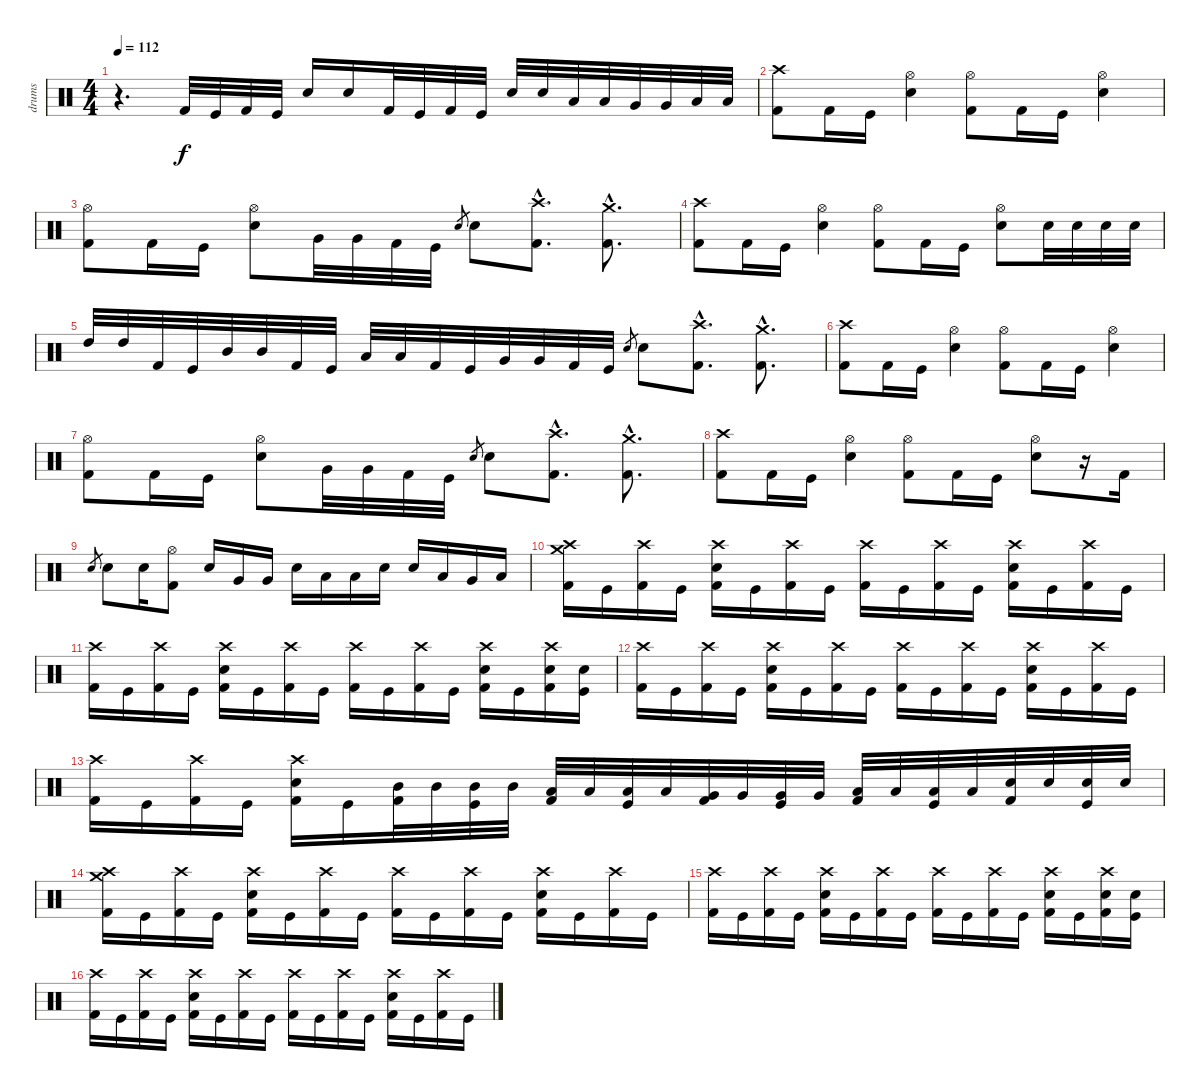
\track ("drums" "drums") {instrument percussion}
\staff {score}
\articulation defaults
\ts (4 4)
\tempo 112
\clef neutral
\ks c
r.4{d dy mp} "Kick (hit) 2".32{dy f} "Kick (hit)".32 "Kick (hit) 2".32 "Kick (hit)".32 "Electric Snare (hit)".16 "Electric Snare (hit)".16 "Kick (hit) 2".32 "Kick (hit)".32 "Kick (hit) 2".32 "Kick (hit)".32 "Electric Snare (hit)".32 "Electric Snare (hit)".32 "Low Tom (hit)".32 "Low Tom (hit)".32 "Very Low Tom (hit)".32 "Very Low Tom (hit)".32 "Low Floor Tom (hit)".32 "Low Floor Tom (hit)".32 |
("Crash high (hit)" "Kick (hit) 2").8 "Kick (hit) 2".16 "Kick (hit)".16 ("Hi-Hat (open)" "Electric Snare (hit)").4 ("Hi-Hat (open)" "Kick (hit) 2").8 "Kick (hit) 2".16 "Kick (hit)".16 ("Hi-Hat (open)" "Electric Snare (hit)").4 |
("Hi-Hat (open)" "Kick (hit) 2").8 "Kick (hit) 2".16 "Kick (hit)".16 ("Hi-Hat (open)" "Electric Snare (hit)").8 "Very Low Tom (hit)".32 "Very Low Tom (hit)".32 "Kick (hit) 2".32 "Kick (hit)".32 "Electric Snare (hit)".8{gr} "Electric Snare (hit)".8 ("Crash high (hit)"{hac} "Kick (hit) 2"{hac}).8{d} ("Crash medium (hit)"{hac} "Kick (hit) 2"{hac}).8{d} |
("Crash high (hit)" "Kick (hit) 2").8 "Kick (hit) 2".16 "Kick (hit)".16 ("Hi-Hat (open)" "Electric Snare (hit)").4 ("Hi-Hat (open)" "Kick (hit) 2").8 "Kick (hit) 2".16 "Kick (hit)".16 ("Hi-Hat (open)" "Electric Snare (hit)").8 "Electric Snare (hit)".32 "Electric Snare (hit)".32 "Electric Snare (hit)".32 "Electric Snare (hit)".32 |
"High Tom (hit)".32 "High Tom (hit)".32 "Kick (hit) 2".32 "Kick (hit)".32 "Mid Tom (hit)".32 "Mid Tom (hit)".32 "Kick (hit) 2".32 "Kick (hit)".32 "Low Tom (hit)".32 "Low Tom (hit)".32 "Kick (hit) 2".32 "Kick (hit)".32 "Very Low Tom (hit)".32 "Very Low Tom (hit)".32 "Kick (hit) 2".32 "Kick (hit)".32 "Electric Snare (hit)".8{gr} "Electric Snare (hit)".8 ("Crash high (hit)"{hac} "Kick (hit) 2"{hac}).8{d} ("Crash medium (hit)"{hac} "Kick (hit) 2"{hac}).8{d} |
("Crash high (hit)" "Kick (hit) 2").8 "Kick (hit) 2".16 "Kick (hit)".16 ("Hi-Hat (open)" "Electric Snare (hit)").4 ("Hi-Hat (open)" "Kick (hit) 2").8 "Kick (hit) 2".16 "Kick (hit)".16 ("Hi-Hat (open)" "Electric Snare (hit)").4 |
("Hi-Hat (open)" "Kick (hit) 2").8 "Kick (hit) 2".16 "Kick (hit)".16 ("Hi-Hat (open)" "Electric Snare (hit)").8 "Very Low Tom (hit)".32 "Very Low Tom (hit)".32 "Kick (hit) 2".32 "Kick (hit)".32 "Electric Snare (hit)".8{gr} "Electric Snare (hit)".8 ("Crash high (hit)"{hac} "Kick (hit) 2"{hac}).8{d} ("Crash medium (hit)"{hac} "Kick (hit) 2"{hac}).8{d} |
("Crash high (hit)" "Kick (hit) 2").8 "Kick (hit) 2".16 "Kick (hit)".16 ("Hi-Hat (open)" "Electric Snare (hit)").4 ("Hi-Hat (open)" "Kick (hit) 2").8 "Kick (hit) 2".16 "Kick (hit)".16 ("Hi-Hat (open)" "Electric Snare (hit)").8 r.16 "Kick (hit) 2".16 |
"Electric Snare (hit)".8{gr} "Electric Snare (hit)".8 "Electric Snare (hit)".16 ("Hi-Hat (open)" "Kick (hit) 2").8 "Electric Snare (hit)".16 "Very Low Tom (hit)".16 "Very Low Tom (hit)".16 "Electric Snare (hit)".16 "Low Tom (hit)".16 "Low Tom (hit)".16 "Electric Snare (hit)".16 "Electric Snare (hit)".16 "Low Tom (hit)".16 "Very Low Tom (hit)".16 "Low Floor Tom (hit)".16 |
("Crash high (hit)" "Crash medium (hit)" "Kick (hit) 2").16 "Kick (hit)".16 ("Crash high (hit)" "Kick (hit) 2").16 "Kick (hit)".16 ("Crash high (hit)" "Electric Snare (hit)" "Kick (hit) 2").16 "Kick (hit)".16 ("Crash high (hit)" "Kick (hit) 2").16 "Kick (hit)".16 ("Crash high (hit)" "Kick (hit) 2").16 "Kick (hit)".16 ("Crash high (hit)" "Kick (hit) 2").16 "Kick (hit)".16 ("Crash high (hit)" "Electric Snare (hit)" "Kick (hit) 2").16 "Kick (hit)".16 ("Crash high (hit)" "Kick (hit) 2").16 "Kick (hit)".16 |
("Crash high (hit)" "Kick (hit) 2").16 "Kick (hit)".16 ("Crash high (hit)" "Kick (hit) 2").16 "Kick (hit)".16 ("Crash high (hit)" "Electric Snare (hit)" "Kick (hit) 2").16 "Kick (hit)".16 ("Crash high (hit)" "Kick (hit) 2").16 "Kick (hit)".16 ("Crash high (hit)" "Kick (hit) 2").16 "Kick (hit)".16 ("Crash high (hit)" "Kick (hit) 2").16 "Kick (hit)".16 ("Crash high (hit)" "Electric Snare (hit)" "Kick (hit) 2").16 "Kick (hit)".16 ("Crash high (hit)" "Electric Snare (hit)" "Kick (hit) 2").16 ("Electric Snare (hit)" "Kick (hit)").16 |
("Crash high (hit)" "Kick (hit) 2").16 "Kick (hit)".16 ("Crash high (hit)" "Kick (hit) 2").16 "Kick (hit)".16 ("Crash high (hit)" "Electric Snare (hit)" "Kick (hit) 2").16 "Kick (hit)".16 ("Crash high (hit)" "Kick (hit) 2").16 "Kick (hit)".16 ("Crash high (hit)" "Kick (hit) 2").16 "Kick (hit)".16 ("Crash high (hit)" "Kick (hit) 2").16 "Kick (hit)".16 ("Crash high (hit)" "Electric Snare (hit)" "Kick (hit) 2").16 "Kick (hit)".16 ("Crash high (hit)" "Kick (hit) 2").16 "Kick (hit)".16 |
("Crash high (hit)" "Kick (hit) 2").16 "Kick (hit)".16 ("Crash high (hit)" "Kick (hit) 2").16 "Kick (hit)".16 ("Crash high (hit)" "Electric Snare (hit)" "Kick (hit) 2").16 "Kick (hit)".16 ("Mid Tom (hit)" "Kick (hit) 2").32 "Mid Tom (hit)".32 ("Mid Tom (hit)" "Kick (hit)").32 "Mid Tom (hit)".32 ("Low Tom (hit)" "Kick (hit) 2").32 "Low Tom (hit)".32 ("Low Tom (hit)" "Kick (hit)").32 "Low Tom (hit)".32 ("Very Low Tom (hit)" "Kick (hit) 2").32 "Very Low Tom (hit)".32 ("Very Low Tom (hit)" "Kick (hit)").32 "Very Low Tom (hit)".32 ("Low Floor Tom (hit)" "Kick (hit) 2").32 "Low Floor Tom (hit)".32 ("Low Floor Tom (hit)" "Kick (hit)").32 "Low Floor Tom (hit)".32 ("Electric Snare (hit)" "Kick (hit) 2").32 "Electric Snare (hit)".32 ("Electric Snare (hit)" "Kick (hit)").32 "Electric Snare (hit)".32 |
("Crash high (hit)" "Crash medium (hit)" "Kick (hit) 2").16 "Kick (hit)".16 ("Crash high (hit)" "Kick (hit) 2").16 "Kick (hit)".16 ("Crash high (hit)" "Electric Snare (hit)" "Kick (hit) 2").16 "Kick (hit)".16 ("Crash high (hit)" "Kick (hit) 2").16 "Kick (hit)".16 ("Crash high (hit)" "Kick (hit) 2").16 "Kick (hit)".16 ("Crash high (hit)" "Kick (hit) 2").16 "Kick (hit)".16 ("Crash high (hit)" "Electric Snare (hit)" "Kick (hit) 2").16 "Kick (hit)".16 ("Crash high (hit)" "Kick (hit) 2").16 "Kick (hit)".16 |
("Crash high (hit)" "Kick (hit) 2").16 "Kick (hit)".16 ("Crash high (hit)" "Kick (hit) 2").16 "Kick (hit)".16 ("Crash high (hit)" "Electric Snare (hit)" "Kick (hit) 2").16 "Kick (hit)".16 ("Crash high (hit)" "Kick (hit) 2").16 "Kick (hit)".16 ("Crash high (hit)" "Kick (hit) 2").16 "Kick (hit)".16 ("Crash high (hit)" "Kick (hit) 2").16 "Kick (hit)".16 ("Crash high (hit)" "Electric Snare (hit)" "Kick (hit) 2").16 "Kick (hit)".16 ("Crash high (hit)" "Electric Snare (hit)" "Kick (hit) 2").16 ("Electric Snare (hit)" "Kick (hit)").16 |
("Crash high (hit)" "Kick (hit) 2").16 "Kick (hit)".16 ("Crash high (hit)" "Kick (hit) 2").16 "Kick (hit)".16 ("Crash high (hit)" "Electric Snare (hit)" "Kick (hit) 2").16 "Kick (hit)".16 ("Crash high (hit)" "Kick (hit) 2").16 "Kick (hit)".16 ("Crash high (hit)" "Kick (hit) 2").16 "Kick (hit)".16 ("Crash high (hit)" "Kick (hit) 2").16 "Kick (hit)".16 ("Crash high (hit)" "Electric Snare (hit)" "Kick (hit) 2").16 "Kick (hit)".16 ("Crash high (hit)" "Kick (hit) 2").16 "Kick (hit)".16
